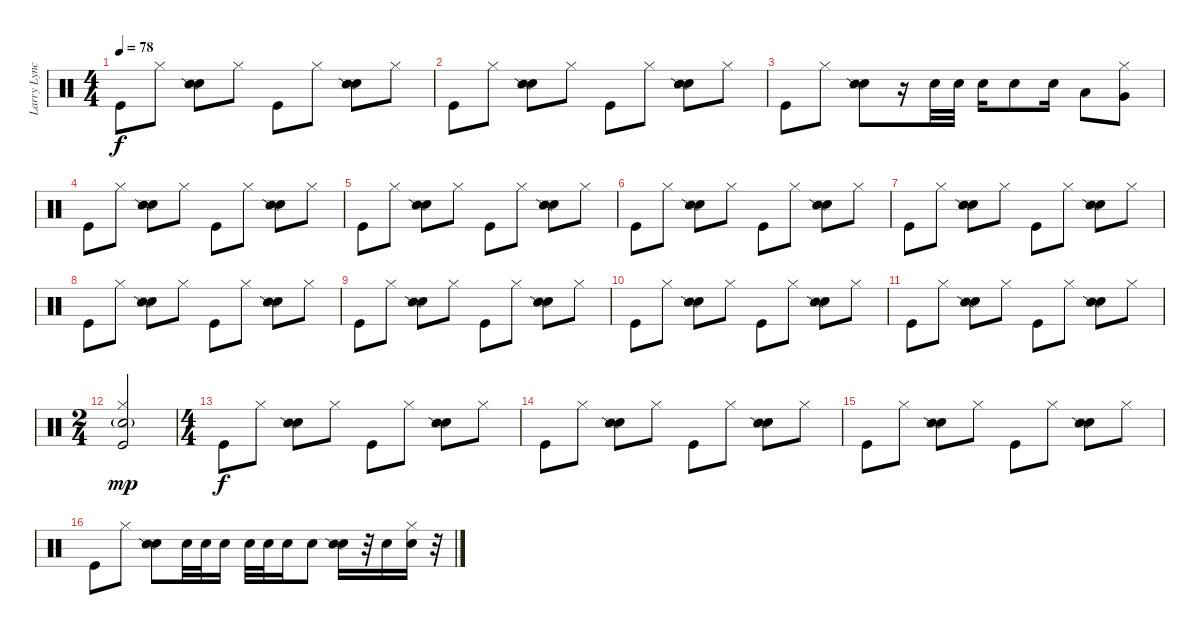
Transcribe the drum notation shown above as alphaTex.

\track ("Larry Lynch" "Larry Lync") {instrument percussion}
\staff {score}
\articulation defaults
\ts (4 4)
\tempo 78
\clef neutral
\ks c "Kick (hit)".8{dy f} "Hi-Hat (closed)".8
("Electric Snare (hit)" "Snare (side stick) 2").8 "Hi-Hat (closed)".8 "Kick (hit)".8 "Hi-Hat (closed)".8 ("Electric Snare (hit)" "Snare (side stick) 2").8 "Hi-Hat (closed)".8 |
"Kick (hit)".8 "Hi-Hat (closed)".8 ("Electric Snare (hit)" "Snare (side stick) 2").8 "Hi-Hat (closed)".8 "Kick (hit)".8 "Hi-Hat (closed)".8 ("Electric Snare (hit)" "Snare (side stick) 2").8 "Hi-Hat (closed)".8 |
"Kick (hit)".8 "Hi-Hat (closed)".8 ("Electric Snare (hit)" "Snare (side stick) 2").8 r.16 "Snare (hit) 2".32 "Snare (hit) 2".32 "Snare (hit) 2".16 "Snare (hit) 2".8 "Snare (hit) 2".16 "Low Tom (hit)".8 ("Hi-Hat (closed)" "Very Low Tom (hit)").8 |
"Kick (hit)".8 "Hi-Hat (closed)".8 ("Electric Snare (hit)" "Snare (side stick) 2").8 "Hi-Hat (closed)".8 "Kick (hit)".8 "Hi-Hat (closed)".8 ("Electric Snare (hit)" "Snare (side stick) 2").8 "Hi-Hat (closed)".8 |
"Kick (hit)".8 "Hi-Hat (closed)".8 ("Electric Snare (hit)" "Snare (side stick) 2").8 "Hi-Hat (closed)".8 "Kick (hit)".8 "Hi-Hat (closed)".8 ("Electric Snare (hit)" "Snare (side stick) 2").8 "Hi-Hat (closed)".8 |
"Kick (hit)".8 "Hi-Hat (closed)".8 ("Electric Snare (hit)" "Snare (side stick) 2").8 "Hi-Hat (closed)".8 "Kick (hit)".8 "Hi-Hat (closed)".8 ("Electric Snare (hit)" "Snare (side stick) 2").8 "Hi-Hat (closed)".8 |
"Kick (hit)".8 "Hi-Hat (closed)".8 ("Electric Snare (hit)" "Snare (side stick) 2").8 "Hi-Hat (closed)".8 "Kick (hit)".8 "Hi-Hat (closed)".8 ("Electric Snare (hit)" "Snare (side stick) 2").8 "Hi-Hat (closed)".8 |
"Kick (hit)".8 "Hi-Hat (closed)".8 ("Electric Snare (hit)" "Snare (side stick) 2").8 "Hi-Hat (closed)".8 "Kick (hit)".8 "Hi-Hat (closed)".8 ("Electric Snare (hit)" "Snare (side stick) 2").8 "Hi-Hat (closed)".8 |
"Kick (hit)".8 "Hi-Hat (closed)".8 ("Electric Snare (hit)" "Snare (side stick) 2").8 "Hi-Hat (closed)".8 "Kick (hit)".8 "Hi-Hat (closed)".8 ("Electric Snare (hit)" "Snare (side stick) 2").8 "Hi-Hat (closed)".8 |
"Kick (hit)".8 "Hi-Hat (closed)".8 ("Electric Snare (hit)" "Snare (side stick) 2").8 "Hi-Hat (closed)".8 "Kick (hit)".8 "Hi-Hat (closed)".8 ("Electric Snare (hit)" "Snare (side stick) 2").8 "Hi-Hat (closed)".8 |
"Kick (hit)".8 "Hi-Hat (closed)".8 ("Electric Snare (hit)" "Snare (side stick) 2").8 "Hi-Hat (closed)".8 "Kick (hit)".8 "Hi-Hat (closed)".8 ("Electric Snare (hit)" "Snare (side stick) 2").8 "Hi-Hat (closed)".8 |
\ts (2 4)
("Hi-Hat (closed)" "Electric Snare (hit)"{g} "Kick (hit)").2{dy mp} |
\ts (4 4)
"Kick (hit)".8{dy f} "Hi-Hat (closed)".8 ("Electric Snare (hit)" "Snare (side stick) 2").8 "Hi-Hat (closed)".8 "Kick (hit)".8 "Hi-Hat (closed)".8 ("Electric Snare (hit)" "Snare (side stick) 2").8 "Hi-Hat (closed)".8 |
"Kick (hit)".8 "Hi-Hat (closed)".8 ("Electric Snare (hit)" "Snare (side stick) 2").8 "Hi-Hat (closed)".8 "Kick (hit)".8 "Hi-Hat (closed)".8 ("Electric Snare (hit)" "Snare (side stick) 2").8 "Hi-Hat (closed)".8 |
"Kick (hit)".8 "Hi-Hat (closed)".8 ("Electric Snare (hit)" "Snare (side stick) 2").8 "Hi-Hat (closed)".8 "Kick (hit)".8 "Hi-Hat (closed)".8 ("Electric Snare (hit)" "Snare (side stick) 2").8 "Hi-Hat (closed)".8 |
"Kick (hit)".8 "Hi-Hat (closed)".8 ("Electric Snare (hit)" "Snare (side stick) 2").8 "Snare (hit) 2".32 "Snare (hit) 2".32 "Snare (hit) 2".16 "Snare (hit) 2".32 "Snare (hit) 2".32 "Snare (hit) 2".16 "Snare (hit) 2".8 ("Electric Snare (hit)" "Snare (side stick) 2").16 r.32 "Snare (hit) 2".16 ("Hi-Hat (closed)" "Electric Snare (hit)").16 r.32
